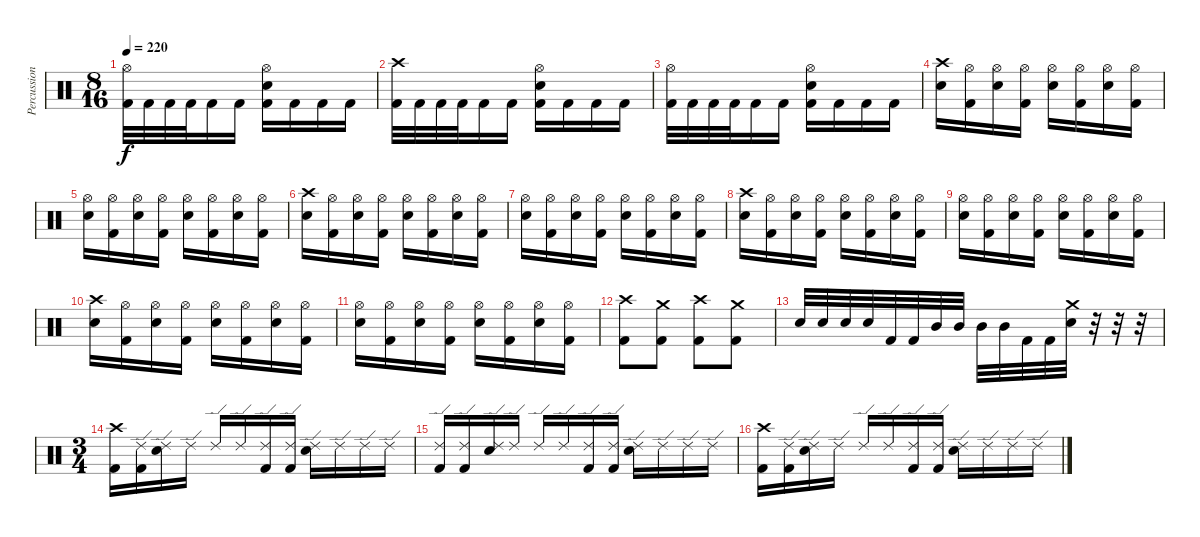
\track ("Percussion" "Percussion") {instrument percussion}
\staff {score}
\articulation defaults
\ts (8 16)
\tempo 220
\clef neutral
\ks c
("Hi-Hat (open)" "Kick (hit) 2").32{dy f} "Kick (hit) 2".32 "Kick (hit) 2".32 "Kick (hit) 2".32 "Kick (hit) 2".16 "Kick (hit) 2".16 ("Hi-Hat (open)" "Electric Snare (hit)" "Kick (hit) 2").16 "Kick (hit) 2".16 "Kick (hit) 2".16 "Kick (hit) 2".16 |
("Crash high (hit)" "Kick (hit) 2").32 "Kick (hit) 2".32 "Kick (hit) 2".32 "Kick (hit) 2".32 "Kick (hit) 2".16 "Kick (hit) 2".16 ("Hi-Hat (open)" "Electric Snare (hit)" "Kick (hit) 2").16 "Kick (hit) 2".16 "Kick (hit) 2".16 "Kick (hit) 2".16 |
("Hi-Hat (open)" "Kick (hit) 2").32 "Kick (hit) 2".32 "Kick (hit) 2".32 "Kick (hit) 2".32 "Kick (hit) 2".16 "Kick (hit) 2".16 ("Hi-Hat (open)" "Electric Snare (hit)" "Kick (hit) 2").16 "Kick (hit) 2".16 "Kick (hit) 2".16 "Kick (hit) 2".16 |
("Crash high (hit)" "Electric Snare (hit)").16 ("Hi-Hat (open)" "Kick (hit) 2").16 ("Hi-Hat (open)" "Electric Snare (hit)").16 ("Hi-Hat (open)" "Kick (hit) 2").16 ("Hi-Hat (open)" "Electric Snare (hit)").16 ("Hi-Hat (open)" "Kick (hit) 2").16 ("Hi-Hat (open)" "Electric Snare (hit)").16 ("Hi-Hat (open)" "Kick (hit) 2").16 |
("Hi-Hat (open)" "Electric Snare (hit)").16 ("Hi-Hat (open)" "Kick (hit) 2").16 ("Hi-Hat (open)" "Electric Snare (hit)").16 ("Hi-Hat (open)" "Kick (hit) 2").16 ("Hi-Hat (open)" "Electric Snare (hit)").16 ("Hi-Hat (open)" "Kick (hit) 2").16 ("Hi-Hat (open)" "Electric Snare (hit)").16 ("Hi-Hat (open)" "Kick (hit) 2").16 |
("Crash high (hit)" "Electric Snare (hit)").16 ("Hi-Hat (open)" "Kick (hit) 2").16 ("Hi-Hat (open)" "Electric Snare (hit)").16 ("Hi-Hat (open)" "Kick (hit) 2").16 ("Hi-Hat (open)" "Electric Snare (hit)").16 ("Hi-Hat (open)" "Kick (hit) 2").16 ("Hi-Hat (open)" "Electric Snare (hit)").16 ("Hi-Hat (open)" "Kick (hit) 2").16 |
("Hi-Hat (open)" "Electric Snare (hit)").16 ("Hi-Hat (open)" "Kick (hit) 2").16 ("Hi-Hat (open)" "Electric Snare (hit)").16 ("Hi-Hat (open)" "Kick (hit) 2").16 ("Hi-Hat (open)" "Electric Snare (hit)").16 ("Hi-Hat (open)" "Kick (hit) 2").16 ("Hi-Hat (open)" "Electric Snare (hit)").16 ("Hi-Hat (open)" "Kick (hit) 2").16 |
("Crash high (hit)" "Electric Snare (hit)").16 ("Hi-Hat (open)" "Kick (hit) 2").16 ("Hi-Hat (open)" "Electric Snare (hit)").16 ("Hi-Hat (open)" "Kick (hit) 2").16 ("Hi-Hat (open)" "Electric Snare (hit)").16 ("Hi-Hat (open)" "Kick (hit) 2").16 ("Hi-Hat (open)" "Electric Snare (hit)").16 ("Hi-Hat (open)" "Kick (hit) 2").16 |
("Hi-Hat (open)" "Electric Snare (hit)").16 ("Hi-Hat (open)" "Kick (hit) 2").16 ("Hi-Hat (open)" "Electric Snare (hit)").16 ("Hi-Hat (open)" "Kick (hit) 2").16 ("Hi-Hat (open)" "Electric Snare (hit)").16 ("Hi-Hat (open)" "Kick (hit) 2").16 ("Hi-Hat (open)" "Electric Snare (hit)").16 ("Hi-Hat (open)" "Kick (hit) 2").16 |
("Crash high (hit)" "Electric Snare (hit)").16 ("Hi-Hat (open)" "Kick (hit) 2").16 ("Hi-Hat (open)" "Electric Snare (hit)").16 ("Hi-Hat (open)" "Kick (hit) 2").16 ("Hi-Hat (open)" "Electric Snare (hit)").16 ("Hi-Hat (open)" "Kick (hit) 2").16 ("Hi-Hat (open)" "Electric Snare (hit)").16 ("Hi-Hat (open)" "Kick (hit) 2").16 |
("Hi-Hat (open)" "Electric Snare (hit)").16 ("Hi-Hat (open)" "Kick (hit) 2").16 ("Hi-Hat (open)" "Electric Snare (hit)").16 ("Hi-Hat (open)" "Kick (hit) 2").16 ("Hi-Hat (open)" "Electric Snare (hit)").16 ("Hi-Hat (open)" "Kick (hit) 2").16 ("Hi-Hat (open)" "Electric Snare (hit)").16 ("Hi-Hat (open)" "Kick (hit) 2").16 |
("Crash high (hit)" "Kick (hit) 2").8 ("Crash medium (hit)" "Kick (hit) 2").8 ("Crash high (hit)" "Kick (hit) 2").8 ("Crash medium (hit)" "Kick (hit) 2").8 |
"Electric Snare (hit)".32 "Electric Snare (hit)".32 "Electric Snare (hit)".32 "Electric Snare (hit)".32 "Kick (hit) 2".32 "Kick (hit) 2".32 "Mid Tom (hit)".32 "Mid Tom (hit)".32 "Mid Tom (hit)".32 "Mid Tom (hit)".32 "Kick (hit) 2".32 "Kick (hit) 2".32 ("Crash medium (hit)" "Electric Snare (hit)").32 r.32 r.32 r.32 |
\ts (3 4)
("Kick (hit) 2" "Crash high (hit)").16 ("Kick (hit) 2" "Ride (edge) 2").16 ("Electric Snare (hit)" "Ride (edge) 2").16 "Ride (edge) 2".16 "Ride (edge) 2".16 "Ride (edge) 2".16 ("Kick (hit) 2" "Ride (edge) 2").16 ("Kick (hit) 2" "Ride (edge) 2").16 ("Electric Snare (hit)" "Ride (edge) 2").16 "Ride (edge) 2".16 "Ride (edge) 2".16 "Ride (edge) 2".16 |
("Kick (hit) 2" "Ride (edge) 2").16 ("Kick (hit) 2" "Ride (edge) 2").16 ("Electric Snare (hit)" "Ride (edge) 2").16 "Ride (edge) 2".16 "Ride (edge) 2".16 "Ride (edge) 2".16 ("Kick (hit) 2" "Ride (edge) 2").16 ("Kick (hit) 2" "Ride (edge) 2").16 ("Electric Snare (hit)" "Ride (edge) 2").16 "Ride (edge) 2".16 "Ride (edge) 2".16 "Ride (edge) 2".16 |
("Kick (hit) 2" "Crash high (hit)").16 ("Kick (hit) 2" "Ride (edge) 2").16 ("Electric Snare (hit)" "Ride (edge) 2").16 "Ride (edge) 2".16 "Ride (edge) 2".16 "Ride (edge) 2".16 ("Kick (hit) 2" "Ride (edge) 2").16 ("Kick (hit) 2" "Ride (edge) 2").16 ("Electric Snare (hit)" "Ride (edge) 2").16 "Ride (edge) 2".16 "Ride (edge) 2".16 "Ride (edge) 2".16
